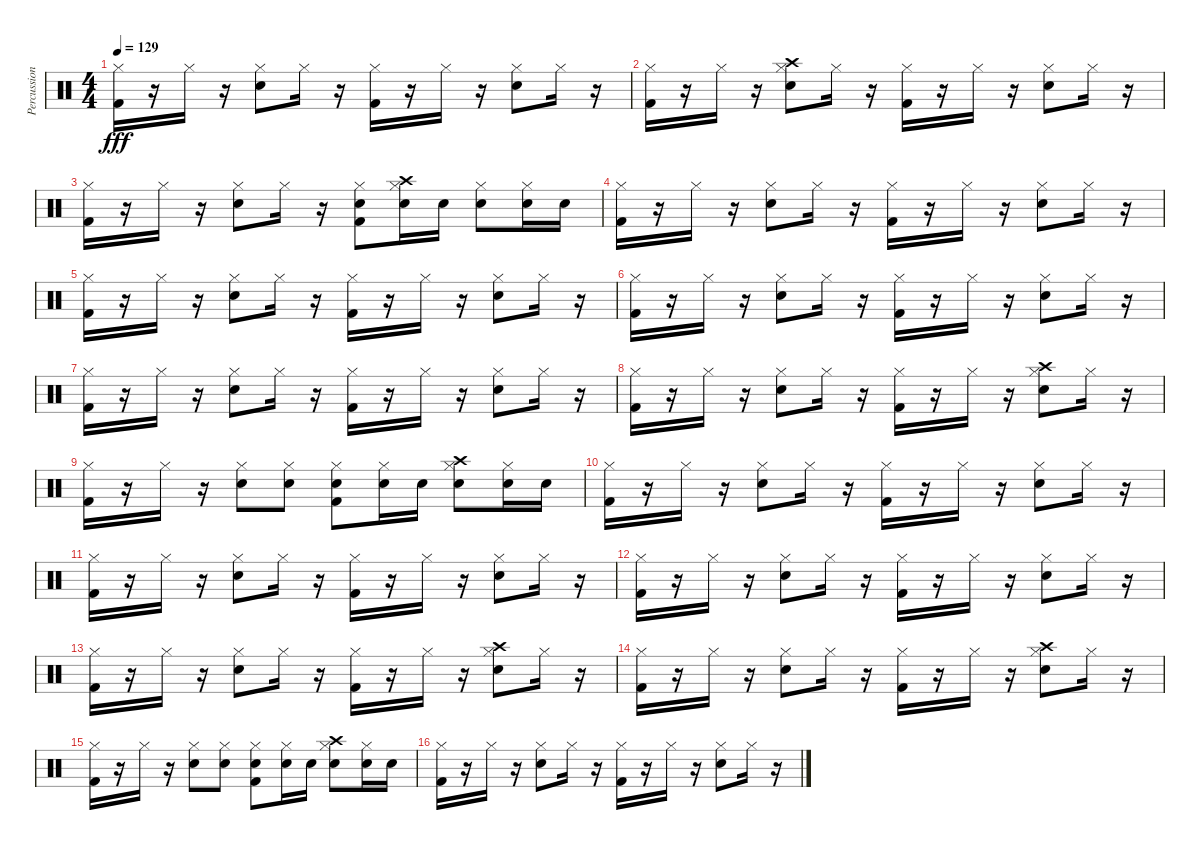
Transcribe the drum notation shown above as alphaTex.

\track ("Percussion" "Percussion") {instrument percussion}
\staff {score}
\articulation defaults
\ts (4 4)
\tempo 129
\clef neutral
\ks c
("Kick (hit) 2" "Hi-Hat (closed)").16{dy fff} r.16 "Hi-Hat (closed)".16 r.16 ("Snare (hit) 2" "Hi-Hat (closed)").8 "Hi-Hat (closed)".16 r.16 ("Kick (hit) 2" "Hi-Hat (closed)").16 r.16 "Hi-Hat (closed)".16 r.16 ("Snare (hit) 2" "Hi-Hat (closed)").8 "Hi-Hat (closed)".16 r.16 |
("Kick (hit) 2" "Hi-Hat (closed)").16 r.16 "Hi-Hat (closed)".16 r.16 ("Snare (hit) 2" "Hi-Hat (closed)" "Crash high (hit)").8 "Hi-Hat (closed)".16 r.16 ("Kick (hit) 2" "Hi-Hat (closed)").16 r.16 "Hi-Hat (closed)".16 r.16 ("Snare (hit) 2" "Hi-Hat (closed)").8 "Hi-Hat (closed)".16 r.16 |
("Kick (hit) 2" "Hi-Hat (closed)").16 r.16 "Hi-Hat (closed)".16 r.16 ("Snare (hit) 2" "Hi-Hat (closed)").8 "Hi-Hat (closed)".16 r.16 ("Kick (hit) 2" "Snare (hit) 2" "Hi-Hat (closed)").8 ("Snare (hit) 2" "Hi-Hat (closed)" "Crash high (hit)").16 "Snare (hit) 2".16 ("Snare (hit) 2" "Hi-Hat (closed)").8 ("Snare (hit) 2" "Hi-Hat (closed)").16 "Snare (hit) 2".16 |
("Kick (hit) 2" "Hi-Hat (closed)").16 r.16 "Hi-Hat (closed)".16 r.16 ("Snare (hit) 2" "Hi-Hat (closed)").8 "Hi-Hat (closed)".16 r.16 ("Kick (hit) 2" "Hi-Hat (closed)").16 r.16 "Hi-Hat (closed)".16 r.16 ("Snare (hit) 2" "Hi-Hat (closed)").8 "Hi-Hat (closed)".16 r.16 |
("Kick (hit) 2" "Hi-Hat (closed)").16 r.16 "Hi-Hat (closed)".16 r.16 ("Snare (hit) 2" "Hi-Hat (closed)").8 "Hi-Hat (closed)".16 r.16 ("Kick (hit) 2" "Hi-Hat (closed)").16 r.16 "Hi-Hat (closed)".16 r.16 ("Snare (hit) 2" "Hi-Hat (closed)").8 "Hi-Hat (closed)".16 r.16 |
("Kick (hit) 2" "Hi-Hat (closed)").16 r.16 "Hi-Hat (closed)".16 r.16 ("Snare (hit) 2" "Hi-Hat (closed)").8 "Hi-Hat (closed)".16 r.16 ("Kick (hit) 2" "Hi-Hat (closed)").16 r.16 "Hi-Hat (closed)".16 r.16 ("Snare (hit) 2" "Hi-Hat (closed)").8 "Hi-Hat (closed)".16 r.16 |
("Kick (hit) 2" "Hi-Hat (closed)").16 r.16 "Hi-Hat (closed)".16 r.16 ("Snare (hit) 2" "Hi-Hat (closed)").8 "Hi-Hat (closed)".16 r.16 ("Kick (hit) 2" "Hi-Hat (closed)").16 r.16 "Hi-Hat (closed)".16 r.16 ("Snare (hit) 2" "Hi-Hat (closed)").8 "Hi-Hat (closed)".16 r.16 |
("Kick (hit) 2" "Hi-Hat (closed)").16 r.16 "Hi-Hat (closed)".16 r.16 ("Snare (hit) 2" "Hi-Hat (closed)").8 "Hi-Hat (closed)".16 r.16 ("Kick (hit) 2" "Hi-Hat (closed)").16 r.16 "Hi-Hat (closed)".16 r.16 ("Snare (hit) 2" "Hi-Hat (closed)" "Crash high (hit)").8 "Hi-Hat (closed)".16 r.16 |
("Kick (hit) 2" "Hi-Hat (closed)").16 r.16 "Hi-Hat (closed)".16 r.16 ("Snare (hit) 2" "Hi-Hat (closed)").8 ("Snare (hit) 2" "Hi-Hat (closed)").8 ("Kick (hit) 2" "Snare (hit) 2" "Hi-Hat (closed)").8 ("Snare (hit) 2" "Hi-Hat (closed)").16 "Snare (hit) 2".16 ("Snare (hit) 2" "Hi-Hat (closed)" "Crash high (hit)").8 ("Snare (hit) 2" "Hi-Hat (closed)").16 "Snare (hit) 2".16 |
("Kick (hit) 2" "Hi-Hat (closed)").16 r.16 "Hi-Hat (closed)".16 r.16 ("Snare (hit) 2" "Hi-Hat (closed)").8 "Hi-Hat (closed)".16 r.16 ("Kick (hit) 2" "Hi-Hat (closed)").16 r.16 "Hi-Hat (closed)".16 r.16 ("Snare (hit) 2" "Hi-Hat (closed)").8 "Hi-Hat (closed)".16 r.16 |
("Kick (hit) 2" "Hi-Hat (closed)").16 r.16 "Hi-Hat (closed)".16 r.16 ("Snare (hit) 2" "Hi-Hat (closed)").8 "Hi-Hat (closed)".16 r.16 ("Kick (hit) 2" "Hi-Hat (closed)").16 r.16 "Hi-Hat (closed)".16 r.16 ("Snare (hit) 2" "Hi-Hat (closed)").8 "Hi-Hat (closed)".16 r.16 |
("Kick (hit) 2" "Hi-Hat (closed)").16 r.16 "Hi-Hat (closed)".16 r.16 ("Snare (hit) 2" "Hi-Hat (closed)").8 "Hi-Hat (closed)".16 r.16 ("Kick (hit) 2" "Hi-Hat (closed)").16 r.16 "Hi-Hat (closed)".16 r.16 ("Snare (hit) 2" "Hi-Hat (closed)").8 "Hi-Hat (closed)".16 r.16 |
("Kick (hit) 2" "Hi-Hat (closed)").16 r.16 "Hi-Hat (closed)".16 r.16 ("Snare (hit) 2" "Hi-Hat (closed)").8 "Hi-Hat (closed)".16 r.16 ("Kick (hit) 2" "Hi-Hat (closed)").16 r.16 "Hi-Hat (closed)".16 r.16 ("Snare (hit) 2" "Hi-Hat (closed)" "Crash high (hit)").8 "Hi-Hat (closed)".16 r.16 |
("Kick (hit) 2" "Hi-Hat (closed)").16 r.16 "Hi-Hat (closed)".16 r.16 ("Snare (hit) 2" "Hi-Hat (closed)").8 "Hi-Hat (closed)".16 r.16 ("Kick (hit) 2" "Hi-Hat (closed)").16 r.16 "Hi-Hat (closed)".16 r.16 ("Snare (hit) 2" "Hi-Hat (closed)" "Crash high (hit)").8 "Hi-Hat (closed)".16 r.16 |
("Kick (hit) 2" "Hi-Hat (closed)").16 r.16 "Hi-Hat (closed)".16 r.16 ("Snare (hit) 2" "Hi-Hat (closed)").8 ("Snare (hit) 2" "Hi-Hat (closed)").8 ("Kick (hit) 2" "Snare (hit) 2" "Hi-Hat (closed)").8 ("Snare (hit) 2" "Hi-Hat (closed)").16 "Snare (hit) 2".16 ("Snare (hit) 2" "Hi-Hat (closed)" "Crash high (hit)").8 ("Snare (hit) 2" "Hi-Hat (closed)").16 "Snare (hit) 2".16 |
("Kick (hit) 2" "Hi-Hat (closed)").16 r.16 "Hi-Hat (closed)".16 r.16 ("Snare (hit) 2" "Hi-Hat (closed)").8 "Hi-Hat (closed)".16 r.16 ("Kick (hit) 2" "Hi-Hat (closed)").16 r.16 "Hi-Hat (closed)".16 r.16 ("Snare (hit) 2" "Hi-Hat (closed)").8 "Hi-Hat (closed)".16 r.16
